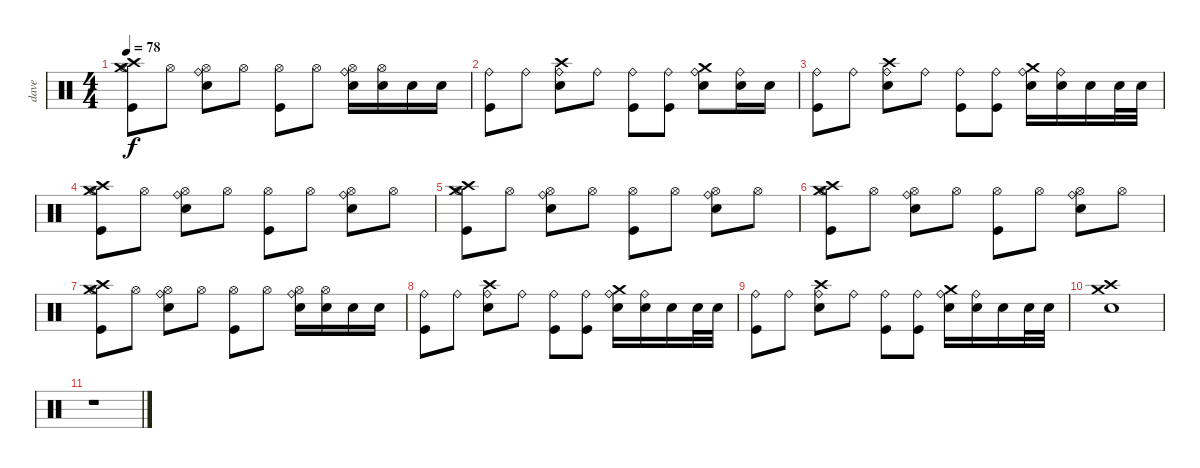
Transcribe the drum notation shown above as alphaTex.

\track ("dave" "dave") {instrument percussion}
\staff {score}
\articulation defaults
\ts (4 4)
\tempo 78
\clef neutral
\ks c
("Hi-Hat (open)" "Crash medium (hit)" "Crash high (hit)" "Kick (hit)").8{dy f} "Hi-Hat (open)".8 ("Hi-Hat (open)" "Ride (bell)" "Snare (hit) 2").8 "Hi-Hat (open)".8 ("Hi-Hat (open)" "Kick (hit)").8 "Hi-Hat (open)".8 ("Hi-Hat (open)" "Ride (bell)" "Snare (hit) 2").16 ("Hi-Hat (open)" "Snare (hit) 2").16 "Snare (hit) 2".16 "Snare (hit) 2".16 |
("Ride (bell)" "Kick (hit)").8 "Ride (bell)".8 ("Ride (bell)" "Crash high (hit)" "Snare (hit) 2").8 "Ride (bell)".8 ("Ride (bell)" "Kick (hit)").8 ("Ride (bell)" "Kick (hit)").8 ("Ride (bell)" "Crash medium (hit)" "Snare (hit) 2").8 ("Ride (bell)" "Snare (hit) 2").16 "Snare (hit) 2".16 |
("Ride (bell)" "Kick (hit)").8 "Ride (bell)".8 ("Ride (bell)" "Crash high (hit)" "Snare (hit) 2").8 "Ride (bell)".8 ("Ride (bell)" "Kick (hit)").8 ("Ride (bell)" "Kick (hit)").8 ("Ride (bell)" "Crash medium (hit)" "Snare (hit) 2").16 ("Ride (bell)" "Snare (hit) 2").16 "Snare (hit) 2".16 "Snare (hit) 2".32 "Snare (hit) 2".32 |
("Hi-Hat (open)" "Crash medium (hit)" "Crash high (hit)" "Kick (hit)").8 "Hi-Hat (open)".8 ("Hi-Hat (open)" "Ride (bell)" "Snare (hit) 2").8 "Hi-Hat (open)".8 ("Hi-Hat (open)" "Kick (hit)").8 "Hi-Hat (open)".8 ("Hi-Hat (open)" "Ride (bell)" "Snare (hit) 2").8 "Hi-Hat (open)".8 |
("Hi-Hat (open)" "Crash medium (hit)" "Crash high (hit)" "Kick (hit)").8 "Hi-Hat (open)".8 ("Hi-Hat (open)" "Ride (bell)" "Snare (hit) 2").8 "Hi-Hat (open)".8 ("Hi-Hat (open)" "Kick (hit)").8 "Hi-Hat (open)".8 ("Hi-Hat (open)" "Ride (bell)" "Snare (hit) 2").8 "Hi-Hat (open)".8 |
("Hi-Hat (open)" "Crash medium (hit)" "Crash high (hit)" "Kick (hit)").8 "Hi-Hat (open)".8 ("Hi-Hat (open)" "Ride (bell)" "Snare (hit) 2").8 "Hi-Hat (open)".8 ("Hi-Hat (open)" "Kick (hit)").8 "Hi-Hat (open)".8 ("Hi-Hat (open)" "Ride (bell)" "Snare (hit) 2").8 "Hi-Hat (open)".8 |
("Hi-Hat (open)" "Crash medium (hit)" "Crash high (hit)" "Kick (hit)").8 "Hi-Hat (open)".8 ("Hi-Hat (open)" "Ride (bell)" "Snare (hit) 2").8 "Hi-Hat (open)".8 ("Hi-Hat (open)" "Kick (hit)").8 "Hi-Hat (open)".8 ("Hi-Hat (open)" "Ride (bell)" "Snare (hit) 2").16 ("Hi-Hat (open)" "Snare (hit) 2").16 "Snare (hit) 2".16 "Snare (hit) 2".16 |
("Ride (bell)" "Kick (hit)").8{volume 16} "Ride (bell)".8 ("Ride (bell)" "Crash high (hit)" "Snare (hit) 2").8 "Ride (bell)".8 ("Ride (bell)" "Kick (hit)").8 ("Ride (bell)" "Kick (hit)").8 ("Ride (bell)" "Crash medium (hit)" "Snare (hit) 2").16 ("Ride (bell)" "Snare (hit) 2").16 "Snare (hit) 2".16 "Snare (hit) 2".32 "Snare (hit) 2".32 |
("Ride (bell)" "Kick (hit)").8 "Ride (bell)".8 ("Ride (bell)" "Crash high (hit)" "Snare (hit) 2").8 "Ride (bell)".8 ("Ride (bell)" "Kick (hit)").8 ("Ride (bell)" "Kick (hit)").8 ("Ride (bell)" "Crash medium (hit)" "Snare (hit) 2").16 ("Ride (bell)" "Snare (hit) 2").16 "Snare (hit) 2".16 "Snare (hit) 2".32 "Snare (hit) 2".32 |
("Snare (hit) 2" "Crash high (hit)" "Crash medium (hit)").1 |
r.1
